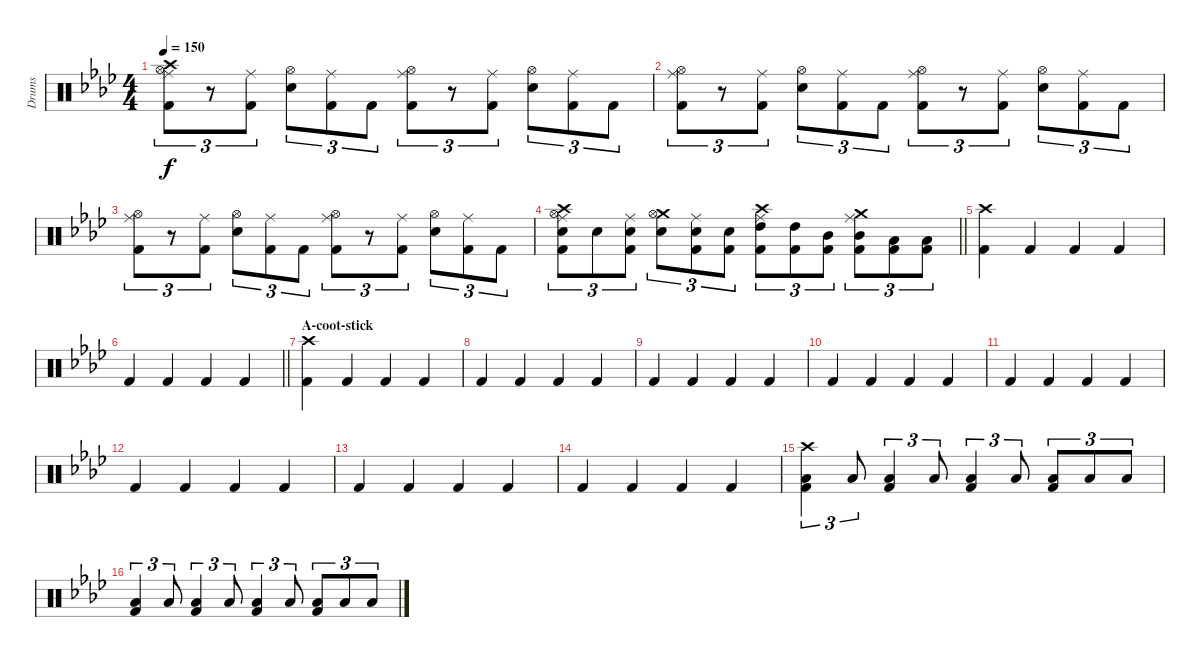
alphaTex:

\track ("Drums" "Drums") {instrument percussion}
\staff {score}
\articulation defaults
\ts (4 4)
\tempo 150
\clef neutral
\ks fminor
("Crash high (hit)" "Hi-Hat (open)" "Ride (middle)" "Kick (hit) 2").8{tu (3 2) dy f} r.8{tu (3 2)} ("Ride (middle)" "Kick (hit) 2").8{tu (3 2)} ("Hi-Hat (open)" "Snare (hit) 2").8{tu (3 2)} ("Ride (middle)" "Kick (hit) 2").8{tu (3 2)} "Kick (hit) 2".8{tu (3 2)} ("Hi-Hat (open)" "Ride (middle)" "Kick (hit) 2").8{tu (3 2)} r.8{tu (3 2)} ("Ride (middle)" "Kick (hit) 2").8{tu (3 2)} ("Hi-Hat (open)" "Snare (hit) 2").8{tu (3 2)} ("Ride (middle)" "Kick (hit) 2").8{tu (3 2)} "Kick (hit) 2".8{tu (3 2)} |
("Hi-Hat (open)" "Ride (middle)" "Kick (hit) 2").8{tu (3 2)} r.8{tu (3 2)} ("Ride (middle)" "Kick (hit) 2").8{tu (3 2)} ("Hi-Hat (open)" "Snare (hit) 2").8{tu (3 2)} ("Ride (middle)" "Kick (hit) 2").8{tu (3 2)} "Kick (hit) 2".8{tu (3 2)} ("Hi-Hat (open)" "Ride (middle)" "Kick (hit) 2").8{tu (3 2)} r.8{tu (3 2)} ("Ride (middle)" "Kick (hit) 2").8{tu (3 2)} ("Hi-Hat (open)" "Snare (hit) 2").8{tu (3 2)} ("Ride (middle)" "Kick (hit) 2").8{tu (3 2)} "Kick (hit) 2".8{tu (3 2)} |
("Hi-Hat (open)" "Ride (middle)" "Kick (hit) 2").8{tu (3 2)} r.8{tu (3 2)} ("Ride (middle)" "Kick (hit) 2").8{tu (3 2)} ("Hi-Hat (open)" "Snare (hit) 2").8{tu (3 2)} ("Ride (middle)" "Kick (hit) 2").8{tu (3 2)} "Kick (hit) 2".8{tu (3 2)} ("Hi-Hat (open)" "Ride (middle)" "Kick (hit) 2").8{tu (3 2)} r.8{tu (3 2)} ("Ride (middle)" "Kick (hit) 2").8{tu (3 2)} ("Hi-Hat (open)" "Snare (hit) 2").8{tu (3 2)} ("Ride (middle)" "Kick (hit) 2").8{tu (3 2)} "Kick (hit) 2".8{tu (3 2)} |
\barLineRight lightlight
("Crash high (hit)" "Hi-Hat (open)" "Ride (middle)" "Snare (hit) 2" "Kick (hit) 2").8{tu (3 2)} "Snare (hit) 2".8{tu (3 2)} ("Ride (middle)" "Snare (hit) 2" "Kick (hit) 2").8{tu (3 2)} ("Crash medium (hit)" "Hi-Hat (open)" "Snare (hit) 2").8{tu (3 2)} ("Ride (middle)" "Snare (hit) 2" "Kick (hit) 2").8{tu (3 2)} ("Snare (hit) 2" "Kick (hit) 2").8{tu (3 2)} ("Ride (middle)" "Crash high (hit)" "High Tom (hit)" "Kick (hit) 2").8{tu (3 2)} ("High Tom (hit)" "Kick (hit) 2").8{tu (3 2)} ("Mid Tom (hit)" "Kick (hit) 2").8{tu (3 2)} ("Ride (middle)" "Crash medium (hit)" "Mid Tom (hit)" "Kick (hit) 2").8{tu (3 2)} ("Low Tom (hit)" "Kick (hit) 2").8{tu (3 2)} ("Low Tom (hit)" "Kick (hit) 2").8{tu (3 2)} |
("Crash high (hit)" "Kick (hit) 2").4 "Kick (hit) 2".4 "Kick (hit) 2".4 "Kick (hit) 2".4 |
\barLineRight lightlight "Kick (hit) 2".4 "Kick (hit) 2".4 "Kick (hit) 2".4 "Kick (hit) 2".4
|
\section ("" "A-coot-stick")
("Crash high (hit)" "Kick (hit) 2").4 "Kick (hit) 2".4 "Kick (hit) 2".4 "Kick (hit) 2".4 |
"Kick (hit) 2".4 "Kick (hit) 2".4 "Kick (hit) 2".4 "Kick (hit) 2".4 |
"Kick (hit) 2".4 "Kick (hit) 2".4 "Kick (hit) 2".4 "Kick (hit) 2".4 |
"Kick (hit) 2".4 "Kick (hit) 2".4 "Kick (hit) 2".4 "Kick (hit) 2".4 |
"Kick (hit) 2".4 "Kick (hit) 2".4 "Kick (hit) 2".4 "Kick (hit) 2".4 |
"Kick (hit) 2".4 "Kick (hit) 2".4 "Kick (hit) 2".4 "Kick (hit) 2".4 |
"Kick (hit) 2".4 "Kick (hit) 2".4 "Kick (hit) 2".4 "Kick (hit) 2".4 |
"Kick (hit) 2".4 "Kick (hit) 2".4 "Kick (hit) 2".4 "Kick (hit) 2".4 |
("Crash high (hit)" "Low Floor Tom (hit)" "Kick (hit) 2").4{tu (3 2)} "Low Floor Tom (hit)".8{tu (3 2)} ("Low Floor Tom (hit)" "Kick (hit) 2").4{tu (3 2)} "Low Floor Tom (hit)".8{tu (3 2)} ("Low Floor Tom (hit)" "Kick (hit) 2").4{tu (3 2)} "Low Floor Tom (hit)".8{tu (3 2)} ("Low Floor Tom (hit)" "Kick (hit) 2").8{tu (3 2)} "Low Floor Tom (hit)".8{tu (3 2)} "Low Floor Tom (hit)".8{tu (3 2)} |
("Low Floor Tom (hit)" "Kick (hit) 2").4{tu (3 2)} "Low Floor Tom (hit)".8{tu (3 2)} ("Low Floor Tom (hit)" "Kick (hit) 2").4{tu (3 2)} "Low Floor Tom (hit)".8{tu (3 2)} ("Low Floor Tom (hit)" "Kick (hit) 2").4{tu (3 2)} "Low Floor Tom (hit)".8{tu (3 2)} ("Low Floor Tom (hit)" "Kick (hit) 2").8{tu (3 2)} "Low Floor Tom (hit)".8{tu (3 2)} "Low Floor Tom (hit)".8{tu (3 2)}
